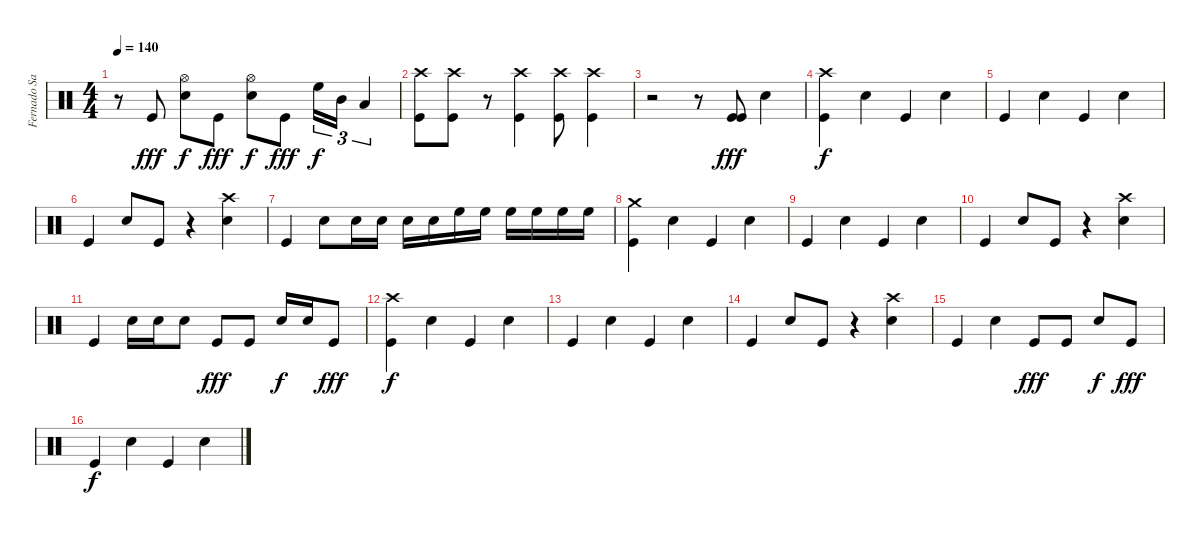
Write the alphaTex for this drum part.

\track ("Fernado Sanchez" "Fernado Sa") {instrument percussion}
\staff {score}
\articulation defaults
\ts (4 4)
\tempo 140
\clef neutral
\ks c
r.8{dy fff} "Kick (hit)".8 ("Hi-Hat (open)" "Electric Snare (hit)").8{dy f} "Kick (hit)".8{dy fff} ("Hi-Hat (open)" "Electric Snare (hit)").8{dy f} "Kick (hit)".8{dy fff} "High Floor Tom (hit)".16{tu (3 2) dy f} "Mid Tom (hit)".16{tu (3 2)} "Low Tom (hit)".4{tu (3 2)} |
("Crash high (hit)" "Kick (hit)").8 ("Crash high (hit)" "Kick (hit)").8 r.8 ("Crash high (hit)" "Kick (hit)").4 ("Crash high (hit)" "Kick (hit)").8 ("Crash high (hit)" "Kick (hit)").4 |
r.2 r.8 ("Kick (hit)" "Kick (hit)").8{dy fff} "Electric Snare (hit)".4 |
("Crash high (hit)" "Kick (hit)").4{dy f} "Electric Snare (hit)".4 "Kick (hit)".4 "Electric Snare (hit)".4 |
"Kick (hit)".4 "Electric Snare (hit)".4 "Kick (hit)".4 "Electric Snare (hit)".4 |
"Kick (hit)".4 "Electric Snare (hit)".8 "Kick (hit)".8 r.4 ("Crash high (hit)" "Electric Snare (hit)").4 |
"Kick (hit)".4 "Electric Snare (hit)".8 "Electric Snare (hit)".16 "Electric Snare (hit)".16 "Electric Snare (hit)".16 "Electric Snare (hit)".16 "High Floor Tom (hit)".16 "High Floor Tom (hit)".16 "High Floor Tom (hit)".16 "High Floor Tom (hit)".16 "High Floor Tom (hit)".16 "High Floor Tom (hit)".16 |
("Crash medium (hit)" "Kick (hit)").4 "Electric Snare (hit)".4 "Kick (hit)".4 "Electric Snare (hit)".4 |
"Kick (hit)".4 "Electric Snare (hit)".4 "Kick (hit)".4 "Electric Snare (hit)".4 |
"Kick (hit)".4 "Electric Snare (hit)".8 "Kick (hit)".8 r.4 ("Crash high (hit)" "Electric Snare (hit)").4 |
"Kick (hit)".4 "Electric Snare (hit)".16 "Electric Snare (hit)".16 "Electric Snare (hit)".8 "Kick (hit)".8{dy fff} "Kick (hit)".8 "Electric Snare (hit)".16{dy f} "Electric Snare (hit)".16 "Kick (hit)".8{dy fff} |
("Crash high (hit)" "Kick (hit)").4{dy f} "Electric Snare (hit)".4 "Kick (hit)".4 "Electric Snare (hit)".4 |
"Kick (hit)".4 "Electric Snare (hit)".4 "Kick (hit)".4 "Electric Snare (hit)".4 |
"Kick (hit)".4 "Electric Snare (hit)".8 "Kick (hit)".8 r.4 ("Crash high (hit)" "Electric Snare (hit)").4 |
"Kick (hit)".4 "Electric Snare (hit)".4 "Kick (hit)".8{dy fff} "Kick (hit)".8 "Electric Snare (hit)".8{dy f} "Kick (hit)".8{dy fff} |
"Kick (hit)".4{dy f} "Electric Snare (hit)".4 "Kick (hit)".4 "Electric Snare (hit)".4
